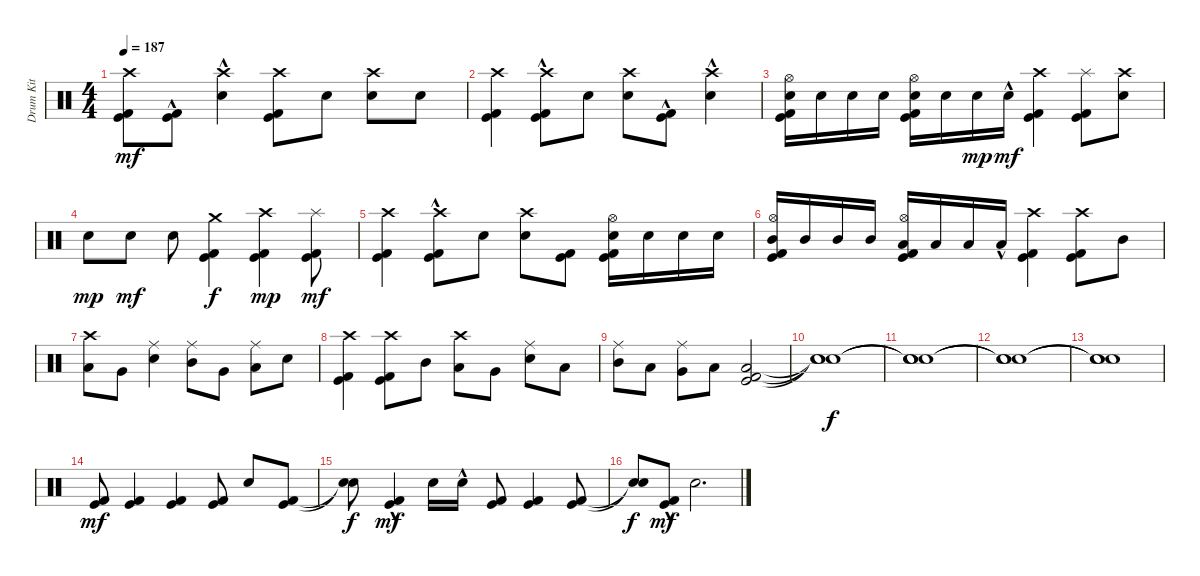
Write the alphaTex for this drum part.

\track ("Drum Kit" "Drum Kit") {instrument percussion}
\staff {score}
\articulation defaults
\ts (4 4)
\tempo 187
\clef neutral
\ks c
("Kick (hit) 2" "Kick (hit)" "Crash high (hit)").8{dy mf} ("Kick (hit) 2"{hac} "Kick (hit)"{hac}).8 ("Electric Snare (hit)"{hac} "Crash high (hit)").4 ("Kick (hit) 2" "Kick (hit)" "Crash high (hit)").8 "Electric Snare (hit)".8 ("Electric Snare (hit)" "Crash high (hit)").8 "Electric Snare (hit)".8 |
("Kick (hit) 2" "Kick (hit)" "Crash high (hit)").4 ("Kick (hit) 2"{hac} "Kick (hit)"{hac} "Crash high (hit)").8 "Electric Snare (hit)".8 ("Electric Snare (hit)" "Crash high (hit)").8 ("Kick (hit) 2"{hac} "Kick (hit)"{hac}).8 ("Electric Snare (hit)" "Crash high (hit)"{hac}).4 |
("Kick (hit) 2" "Kick (hit)" "Electric Snare (hit)" "Hi-Hat (open)").16 "Electric Snare (hit)".16 "Electric Snare (hit)".16 "Electric Snare (hit)".16 ("Kick (hit) 2" "Kick (hit)" "Electric Snare (hit)" "Hi-Hat (open)").16 "Electric Snare (hit)".16 "Electric Snare (hit)".16{dy mp} "Electric Snare (hit)"{hac}.16{dy mf} ("Kick (hit) 2" "Kick (hit)" "Crash high (hit)").4 ("Kick (hit) 2" "Kick (hit)" "Splash (hit)").8 ("Electric Snare (hit)" "Crash high (hit)").8 |
"Electric Snare (hit)".8{dy mp} "Electric Snare (hit)".8{dy mf} "Electric Snare (hit)".8 ("Kick (hit) 2" "Kick (hit)" "Crash medium (hit)").4{dy f} ("Kick (hit) 2" "Kick (hit)" "Crash high (hit)").4{dy mp} ("Kick (hit) 2" "Kick (hit)" "Splash (hit)").8{dy mf} |
("Kick (hit) 2" "Kick (hit)" "Crash high (hit)").4 ("Kick (hit) 2"{hac} "Kick (hit)"{hac} "Crash high (hit)").8 "Electric Snare (hit)".8 ("Electric Snare (hit)" "Crash high (hit)").8 ("Kick (hit) 2" "Kick (hit)").8 ("Kick (hit) 2" "Kick (hit)" "Electric Snare (hit)" "Hi-Hat (open)").16 "Electric Snare (hit)".16 "Electric Snare (hit)".16 "Electric Snare (hit)".16 |
("Kick (hit) 2" "Kick (hit)" "Mid Tom (hit)" "Hi-Hat (open)").16 "Mid Tom (hit)".16 "Mid Tom (hit)".16 "Mid Tom (hit)".16 ("Kick (hit) 2" "Kick (hit)" "Low Tom (hit)" "Hi-Hat (open)").16 "Low Tom (hit)".16 "Low Tom (hit)".16 "Low Tom (hit)"{hac}.16 ("Kick (hit) 2" "Kick (hit)" "Crash high (hit)").4 ("Kick (hit) 2" "Kick (hit)" "Crash high (hit)").8 "Mid Tom (hit)".8 |
("Low Tom (hit)" "Crash high (hit)").8 "Very Low Tom (hit)".8 ("Electric Snare (hit)" "Ride (middle)").4 ("Mid Tom (hit)" "Ride (middle)").8 "Very Low Tom (hit)".8 ("Low Tom (hit)" "Ride (middle)").8 "Electric Snare (hit)".8 |
("Kick (hit) 2" "Kick (hit)" "Crash high (hit)").4 ("Kick (hit) 2" "Kick (hit)" "Crash high (hit)").8 "Mid Tom (hit)".8 ("Low Tom (hit)" "Crash high (hit)").8 "Very Low Tom (hit)".8 ("Electric Snare (hit)" "Ride (middle)").8 "Low Tom (hit)".8 |
("Mid Tom (hit)" "Ride (middle)").8 "Low Tom (hit)".8 ("Very Low Tom (hit)" "Ride (middle)").8 "Low Tom (hit)".8 ("Kick (hit) 2" "Kick (hit)" "Low Floor Tom (hit)").2 |
("Snare (hit)"{t} "Snare (hit)"{t} "Snare (hit)"{t}).1{dy f} |
("Snare (hit)"{t} "Snare (hit)"{t} "Snare (hit)"{t}).1 |
("Snare (hit)"{t} "Snare (hit)"{t} "Snare (hit)"{t}).1 |
("Snare (hit)"{t} "Snare (hit)"{t} "Snare (hit)"{t}).1 |
("Kick (hit) 2" "Kick (hit)").8{dy mf} ("Kick (hit) 2" "Kick (hit)").4 ("Kick (hit) 2" "Kick (hit)").4 ("Kick (hit) 2" "Kick (hit)").8 "Electric Snare (hit)".8 ("Kick (hit) 2" "Kick (hit)").8 |
("Snare (hit)"{t} "Snare (hit)"{t}).8{dy f} ("Kick (hit) 2"{hac} "Kick (hit)"{hac}).4{dy mf} "Electric Snare (hit)".16 "Electric Snare (hit)"{hac}.16 ("Kick (hit) 2" "Kick (hit)").8 ("Kick (hit) 2" "Kick (hit)").4 ("Kick (hit) 2" "Kick (hit)").8 |
("Snare (hit)"{t} "Snare (hit)"{t}).8{dy f} ("Kick (hit) 2"{hac} "Kick (hit)"{hac}).8{dy mf} "Electric Snare (hit)".2{d}
